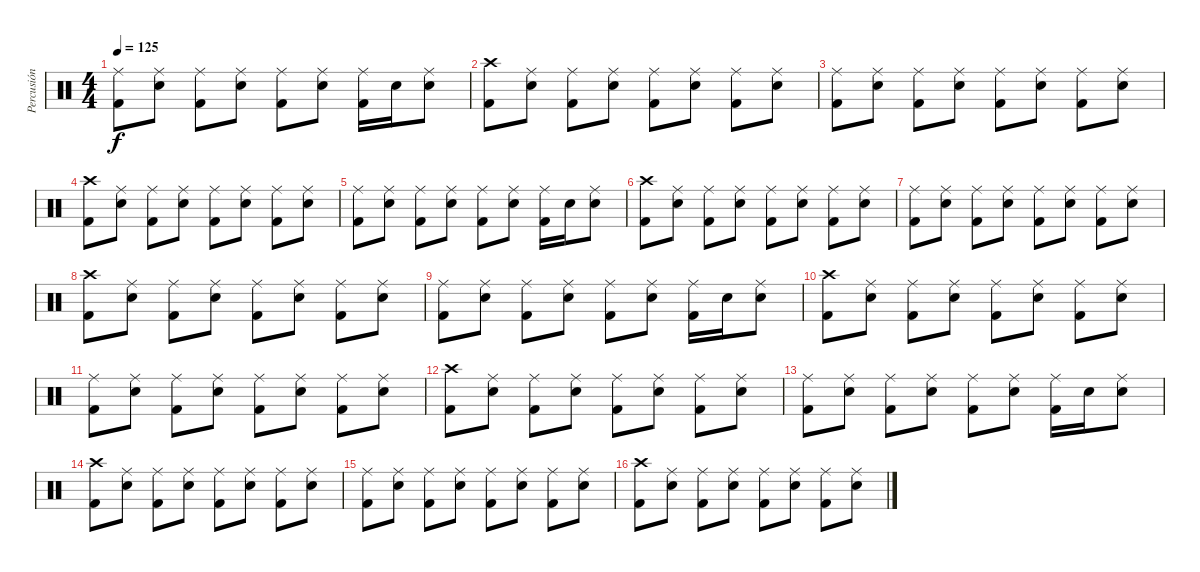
\track ("Percusión" "Percusión") {instrument percussion}
\staff {score}
\articulation defaults
\ts (4 4)
\tempo 125
\clef neutral
\ks c
("Ride (middle)" "Kick (hit) 2").8{dy f} ("Ride (middle)" "Electric Snare (hit)").8 ("Ride (middle)" "Kick (hit) 2").8 ("Ride (middle)" "Electric Snare (hit)").8 ("Ride (middle)" "Kick (hit) 2").8 ("Ride (middle)" "Electric Snare (hit)").8 ("Ride (middle)" "Kick (hit) 2").16 "Electric Snare (hit)".16 ("Ride (middle)" "Electric Snare (hit)").8 |
("Crash high (hit)" "Kick (hit) 2").8 ("Ride (middle)" "Electric Snare (hit)").8 ("Ride (middle)" "Kick (hit) 2").8 ("Ride (middle)" "Electric Snare (hit)").8 ("Ride (middle)" "Kick (hit) 2").8 ("Ride (middle)" "Electric Snare (hit)").8 ("Ride (middle)" "Kick (hit) 2").8 ("Ride (middle)" "Electric Snare (hit)").8 |
("Ride (middle)" "Kick (hit) 2").8 ("Ride (middle)" "Electric Snare (hit)").8 ("Ride (middle)" "Kick (hit) 2").8 ("Ride (middle)" "Electric Snare (hit)").8 ("Ride (middle)" "Kick (hit) 2").8 ("Ride (middle)" "Electric Snare (hit)").8 ("Ride (middle)" "Kick (hit) 2").8 ("Ride (middle)" "Electric Snare (hit)").8 |
("Crash high (hit)" "Kick (hit) 2").8 ("Ride (middle)" "Electric Snare (hit)").8 ("Ride (middle)" "Kick (hit) 2").8 ("Ride (middle)" "Electric Snare (hit)").8 ("Ride (middle)" "Kick (hit) 2").8 ("Ride (middle)" "Electric Snare (hit)").8 ("Ride (middle)" "Kick (hit) 2").8 ("Ride (middle)" "Electric Snare (hit)").8 |
("Ride (middle)" "Kick (hit) 2").8 ("Ride (middle)" "Electric Snare (hit)").8 ("Ride (middle)" "Kick (hit) 2").8 ("Ride (middle)" "Electric Snare (hit)").8 ("Ride (middle)" "Kick (hit) 2").8 ("Ride (middle)" "Electric Snare (hit)").8 ("Ride (middle)" "Kick (hit) 2").16 "Electric Snare (hit)".16 ("Ride (middle)" "Electric Snare (hit)").8 |
("Crash high (hit)" "Kick (hit) 2").8 ("Ride (middle)" "Electric Snare (hit)").8 ("Ride (middle)" "Kick (hit) 2").8 ("Ride (middle)" "Electric Snare (hit)").8 ("Ride (middle)" "Kick (hit) 2").8 ("Ride (middle)" "Electric Snare (hit)").8 ("Ride (middle)" "Kick (hit) 2").8 ("Ride (middle)" "Electric Snare (hit)").8 |
("Ride (middle)" "Kick (hit) 2").8 ("Ride (middle)" "Electric Snare (hit)").8 ("Ride (middle)" "Kick (hit) 2").8 ("Ride (middle)" "Electric Snare (hit)").8 ("Ride (middle)" "Kick (hit) 2").8 ("Ride (middle)" "Electric Snare (hit)").8 ("Ride (middle)" "Kick (hit) 2").8 ("Ride (middle)" "Electric Snare (hit)").8 |
("Crash high (hit)" "Kick (hit) 2").8 ("Ride (middle)" "Electric Snare (hit)").8 ("Ride (middle)" "Kick (hit) 2").8 ("Ride (middle)" "Electric Snare (hit)").8 ("Ride (middle)" "Kick (hit) 2").8 ("Ride (middle)" "Electric Snare (hit)").8 ("Ride (middle)" "Kick (hit) 2").8 ("Ride (middle)" "Electric Snare (hit)").8 |
("Ride (middle)" "Kick (hit) 2").8 ("Ride (middle)" "Electric Snare (hit)").8 ("Ride (middle)" "Kick (hit) 2").8 ("Ride (middle)" "Electric Snare (hit)").8 ("Ride (middle)" "Kick (hit) 2").8 ("Ride (middle)" "Electric Snare (hit)").8 ("Ride (middle)" "Kick (hit) 2").16 "Electric Snare (hit)".16 ("Ride (middle)" "Electric Snare (hit)").8 |
("Crash high (hit)" "Kick (hit) 2").8 ("Ride (middle)" "Electric Snare (hit)").8 ("Ride (middle)" "Kick (hit) 2").8 ("Ride (middle)" "Electric Snare (hit)").8 ("Ride (middle)" "Kick (hit) 2").8 ("Ride (middle)" "Electric Snare (hit)").8 ("Ride (middle)" "Kick (hit) 2").8 ("Ride (middle)" "Electric Snare (hit)").8 |
("Ride (middle)" "Kick (hit) 2").8 ("Ride (middle)" "Electric Snare (hit)").8 ("Ride (middle)" "Kick (hit) 2").8 ("Ride (middle)" "Electric Snare (hit)").8 ("Ride (middle)" "Kick (hit) 2").8 ("Ride (middle)" "Electric Snare (hit)").8 ("Ride (middle)" "Kick (hit) 2").8 ("Ride (middle)" "Electric Snare (hit)").8 |
("Crash high (hit)" "Kick (hit) 2").8 ("Ride (middle)" "Electric Snare (hit)").8 ("Ride (middle)" "Kick (hit) 2").8 ("Ride (middle)" "Electric Snare (hit)").8 ("Ride (middle)" "Kick (hit) 2").8 ("Ride (middle)" "Electric Snare (hit)").8 ("Ride (middle)" "Kick (hit) 2").8 ("Ride (middle)" "Electric Snare (hit)").8 |
("Ride (middle)" "Kick (hit) 2").8 ("Ride (middle)" "Electric Snare (hit)").8 ("Ride (middle)" "Kick (hit) 2").8 ("Ride (middle)" "Electric Snare (hit)").8 ("Ride (middle)" "Kick (hit) 2").8 ("Ride (middle)" "Electric Snare (hit)").8 ("Ride (middle)" "Kick (hit) 2").16 "Electric Snare (hit)".16 ("Ride (middle)" "Electric Snare (hit)").8 |
("Crash high (hit)" "Kick (hit) 2").8 ("Ride (middle)" "Electric Snare (hit)").8 ("Ride (middle)" "Kick (hit) 2").8 ("Ride (middle)" "Electric Snare (hit)").8 ("Ride (middle)" "Kick (hit) 2").8 ("Ride (middle)" "Electric Snare (hit)").8 ("Ride (middle)" "Kick (hit) 2").8 ("Ride (middle)" "Electric Snare (hit)").8 |
("Ride (middle)" "Kick (hit) 2").8 ("Ride (middle)" "Electric Snare (hit)").8 ("Ride (middle)" "Kick (hit) 2").8 ("Ride (middle)" "Electric Snare (hit)").8 ("Ride (middle)" "Kick (hit) 2").8 ("Ride (middle)" "Electric Snare (hit)").8 ("Ride (middle)" "Kick (hit) 2").8 ("Ride (middle)" "Electric Snare (hit)").8 |
("Crash high (hit)" "Kick (hit) 2").8 ("Ride (middle)" "Electric Snare (hit)").8 ("Ride (middle)" "Kick (hit) 2").8 ("Ride (middle)" "Electric Snare (hit)").8 ("Ride (middle)" "Kick (hit) 2").8 ("Ride (middle)" "Electric Snare (hit)").8 ("Ride (middle)" "Kick (hit) 2").8 ("Ride (middle)" "Electric Snare (hit)").8
